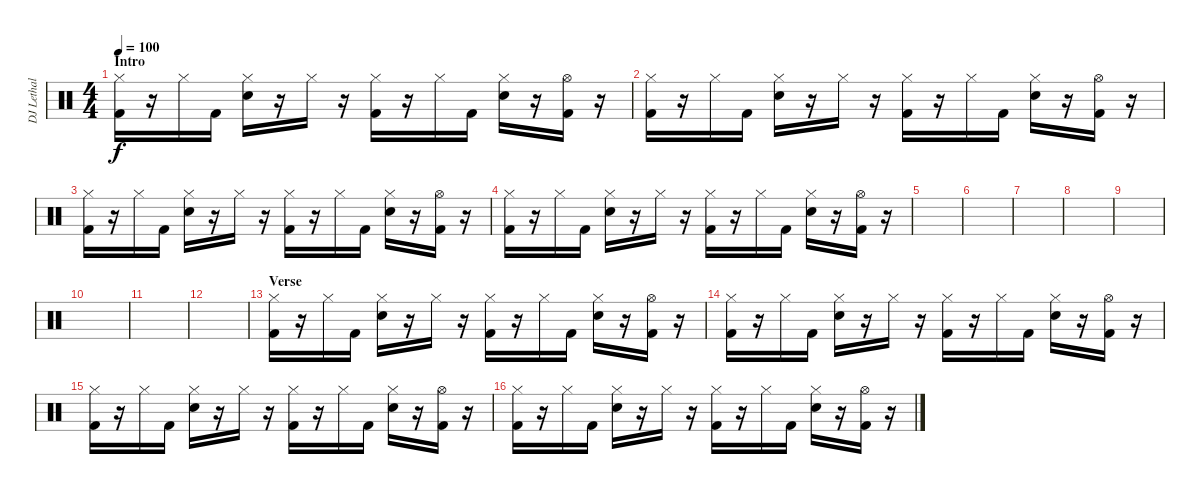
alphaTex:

\track ("DJ Lethal - Sample Drums" "DJ Lethal ") {instrument percussion}
\staff {score}
\articulation defaults
\ts (4 4)
\section ("" "Intro")
\tempo 100
\clef neutral
\ks c
("Hi-Hat (closed)" "Kick (hit) 2").16{dy f} r.16 "Hi-Hat (closed)".16 "Kick (hit) 2".16 ("Hi-Hat (closed)" "Electric Snare (hit)").16 r.16 "Hi-Hat (closed)".16 r.16 ("Hi-Hat (closed)" "Kick (hit) 2").16 r.16 "Hi-Hat (closed)".16 "Kick (hit) 2".16 ("Hi-Hat (closed)" "Electric Snare (hit)").16 r.16 ("Hi-Hat (open)" "Kick (hit) 2").16 r.16 |
("Hi-Hat (closed)" "Kick (hit) 2").16 r.16 "Hi-Hat (closed)".16 "Kick (hit) 2".16 ("Hi-Hat (closed)" "Electric Snare (hit)").16 r.16 "Hi-Hat (closed)".16 r.16 ("Hi-Hat (closed)" "Kick (hit) 2").16 r.16 "Hi-Hat (closed)".16 "Kick (hit) 2".16 ("Hi-Hat (closed)" "Electric Snare (hit)").16 r.16 ("Hi-Hat (open)" "Kick (hit) 2").16 r.16 |
("Hi-Hat (closed)" "Kick (hit) 2").16 r.16 "Hi-Hat (closed)".16 "Kick (hit) 2".16 ("Hi-Hat (closed)" "Electric Snare (hit)").16 r.16 "Hi-Hat (closed)".16 r.16 ("Hi-Hat (closed)" "Kick (hit) 2").16 r.16 "Hi-Hat (closed)".16 "Kick (hit) 2".16 ("Hi-Hat (closed)" "Electric Snare (hit)").16 r.16 ("Hi-Hat (open)" "Kick (hit) 2").16 r.16 |
("Hi-Hat (closed)" "Kick (hit) 2").16 r.16 "Hi-Hat (closed)".16 "Kick (hit) 2".16 ("Hi-Hat (closed)" "Electric Snare (hit)").16 r.16 "Hi-Hat (closed)".16 r.16 ("Hi-Hat (closed)" "Kick (hit) 2").16 r.16 "Hi-Hat (closed)".16 "Kick (hit) 2".16 ("Hi-Hat (closed)" "Electric Snare (hit)").16 r.16 ("Hi-Hat (open)" "Kick (hit) 2").16 r.16 |
|
|
|
|
|
|
|
|
\section ("" "Verse")
("Hi-Hat (closed)" "Kick (hit) 2").16 r.16 "Hi-Hat (closed)".16 "Kick (hit) 2".16 ("Hi-Hat (closed)" "Electric Snare (hit)").16 r.16 "Hi-Hat (closed)".16 r.16 ("Hi-Hat (closed)" "Kick (hit) 2").16 r.16 "Hi-Hat (closed)".16 "Kick (hit) 2".16 ("Hi-Hat (closed)" "Electric Snare (hit)").16 r.16 ("Hi-Hat (open)" "Kick (hit) 2").16 r.16 |
("Hi-Hat (closed)" "Kick (hit) 2").16 r.16 "Hi-Hat (closed)".16 "Kick (hit) 2".16 ("Hi-Hat (closed)" "Electric Snare (hit)").16 r.16 "Hi-Hat (closed)".16 r.16 ("Hi-Hat (closed)" "Kick (hit) 2").16 r.16 "Hi-Hat (closed)".16 "Kick (hit) 2".16 ("Hi-Hat (closed)" "Electric Snare (hit)").16 r.16 ("Hi-Hat (open)" "Kick (hit) 2").16 r.16 |
("Hi-Hat (closed)" "Kick (hit) 2").16 r.16 "Hi-Hat (closed)".16 "Kick (hit) 2".16 ("Hi-Hat (closed)" "Electric Snare (hit)").16 r.16 "Hi-Hat (closed)".16 r.16 ("Hi-Hat (closed)" "Kick (hit) 2").16 r.16 "Hi-Hat (closed)".16 "Kick (hit) 2".16 ("Hi-Hat (closed)" "Electric Snare (hit)").16 r.16 ("Hi-Hat (open)" "Kick (hit) 2").16 r.16 |
("Hi-Hat (closed)" "Kick (hit) 2").16 r.16 "Hi-Hat (closed)".16 "Kick (hit) 2".16 ("Hi-Hat (closed)" "Electric Snare (hit)").16 r.16 "Hi-Hat (closed)".16 r.16 ("Hi-Hat (closed)" "Kick (hit) 2").16 r.16 "Hi-Hat (closed)".16 "Kick (hit) 2".16 ("Hi-Hat (closed)" "Electric Snare (hit)").16 r.16 ("Hi-Hat (open)" "Kick (hit) 2").16 r.16
